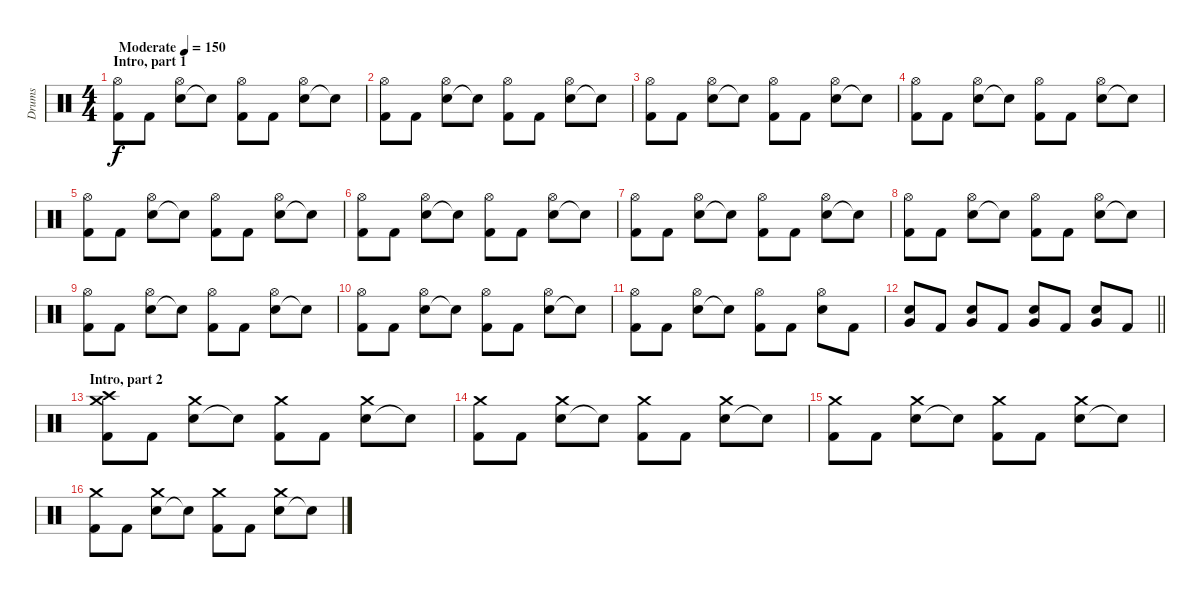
\track ("Drums" "Drums") {instrument percussion}
\staff {score}
\articulation defaults
\ts (4 4)
\section ("" "Intro, part 1")
\tempo (150 "Moderate")
\clef neutral
\ks c
("Kick (hit) 2" "Hi-Hat (open)").8{dy f} "Kick (hit) 2".8 ("Electric Snare (hit)" "Hi-Hat (open)").8 "Snare (hit)"{t}.8 ("Kick (hit) 2" "Hi-Hat (open)").8 "Kick (hit) 2".8 ("Electric Snare (hit)" "Hi-Hat (open)").8 "Snare (hit)"{t}.8 |
("Kick (hit) 2" "Hi-Hat (open)").8 "Kick (hit) 2".8 ("Electric Snare (hit)" "Hi-Hat (open)").8 "Snare (hit)"{t}.8 ("Kick (hit) 2" "Hi-Hat (open)").8 "Kick (hit) 2".8 ("Electric Snare (hit)" "Hi-Hat (open)").8 "Snare (hit)"{t}.8 |
("Kick (hit) 2" "Hi-Hat (open)").8 "Kick (hit) 2".8 ("Electric Snare (hit)" "Hi-Hat (open)").8 "Snare (hit)"{t}.8 ("Kick (hit) 2" "Hi-Hat (open)").8 "Kick (hit) 2".8 ("Electric Snare (hit)" "Hi-Hat (open)").8 "Snare (hit)"{t}.8 |
("Kick (hit) 2" "Hi-Hat (open)").8 "Kick (hit) 2".8 ("Electric Snare (hit)" "Hi-Hat (open)").8 "Snare (hit)"{t}.8 ("Kick (hit) 2" "Hi-Hat (open)").8 "Kick (hit) 2".8 ("Electric Snare (hit)" "Hi-Hat (open)").8 "Snare (hit)"{t}.8 |
("Kick (hit) 2" "Hi-Hat (open)").8 "Kick (hit) 2".8 ("Electric Snare (hit)" "Hi-Hat (open)").8 "Snare (hit)"{t}.8 ("Kick (hit) 2" "Hi-Hat (open)").8 "Kick (hit) 2".8 ("Electric Snare (hit)" "Hi-Hat (open)").8 "Snare (hit)"{t}.8 |
("Kick (hit) 2" "Hi-Hat (open)").8 "Kick (hit) 2".8 ("Electric Snare (hit)" "Hi-Hat (open)").8 "Snare (hit)"{t}.8 ("Kick (hit) 2" "Hi-Hat (open)").8 "Kick (hit) 2".8 ("Electric Snare (hit)" "Hi-Hat (open)").8 "Snare (hit)"{t}.8 |
("Kick (hit) 2" "Hi-Hat (open)").8 "Kick (hit) 2".8 ("Electric Snare (hit)" "Hi-Hat (open)").8 "Snare (hit)"{t}.8 ("Kick (hit) 2" "Hi-Hat (open)").8 "Kick (hit) 2".8 ("Electric Snare (hit)" "Hi-Hat (open)").8 "Snare (hit)"{t}.8 |
("Kick (hit) 2" "Hi-Hat (open)").8 "Kick (hit) 2".8 ("Electric Snare (hit)" "Hi-Hat (open)").8 "Snare (hit)"{t}.8 ("Kick (hit) 2" "Hi-Hat (open)").8 "Kick (hit) 2".8 ("Electric Snare (hit)" "Hi-Hat (open)").8 "Snare (hit)"{t}.8 |
("Kick (hit) 2" "Hi-Hat (open)").8 "Kick (hit) 2".8 ("Electric Snare (hit)" "Hi-Hat (open)").8 "Snare (hit)"{t}.8 ("Kick (hit) 2" "Hi-Hat (open)").8 "Kick (hit) 2".8 ("Electric Snare (hit)" "Hi-Hat (open)").8 "Snare (hit)"{t}.8 |
("Kick (hit) 2" "Hi-Hat (open)").8 "Kick (hit) 2".8 ("Electric Snare (hit)" "Hi-Hat (open)").8 "Snare (hit)"{t}.8 ("Kick (hit) 2" "Hi-Hat (open)").8 "Kick (hit) 2".8 ("Electric Snare (hit)" "Hi-Hat (open)").8 "Snare (hit)"{t}.8 |
("Kick (hit) 2" "Hi-Hat (open)").8 "Kick (hit) 2".8 ("Electric Snare (hit)" "Hi-Hat (open)").8 "Snare (hit)"{t}.8 ("Kick (hit) 2" "Hi-Hat (open)").8 "Kick (hit) 2".8 ("Electric Snare (hit)" "Hi-Hat (open)").8 "Kick (hit) 2".8 |
\barLineRight lightlight
("Electric Snare (hit)" "Very Low Tom (hit)").8 "Kick (hit) 2".8 ("Electric Snare (hit)" "Very Low Tom (hit)").8 "Kick (hit) 2".8 ("Electric Snare (hit)" "Very Low Tom (hit)").8 "Kick (hit) 2".8 ("Electric Snare (hit)" "Very Low Tom (hit)").8 "Kick (hit) 2".8 |
\section ("" "Intro, part 2")
("Kick (hit) 2" "Crash medium (hit)" "Crash high (hit)").8 "Kick (hit) 2".8 ("Electric Snare (hit)" "Crash medium (hit)").8 "Snare (hit)"{t}.8 ("Kick (hit) 2" "Crash medium (hit)").8 "Kick (hit) 2".8 ("Electric Snare (hit)" "Crash medium (hit)").8 "Snare (hit)"{t}.8 |
("Kick (hit) 2" "Crash medium (hit)").8 "Kick (hit) 2".8 ("Electric Snare (hit)" "Crash medium (hit)").8 "Snare (hit)"{t}.8 ("Kick (hit) 2" "Crash medium (hit)").8 "Kick (hit) 2".8 ("Electric Snare (hit)" "Crash medium (hit)").8 "Snare (hit)"{t}.8 |
("Kick (hit) 2" "Crash medium (hit)").8 "Kick (hit) 2".8 ("Electric Snare (hit)" "Crash medium (hit)").8 "Snare (hit)"{t}.8 ("Kick (hit) 2" "Crash medium (hit)").8 "Kick (hit) 2".8 ("Electric Snare (hit)" "Crash medium (hit)").8 "Snare (hit)"{t}.8 |
("Kick (hit) 2" "Crash medium (hit)").8 "Kick (hit) 2".8 ("Electric Snare (hit)" "Crash medium (hit)").8 "Snare (hit)"{t}.8 ("Kick (hit) 2" "Crash medium (hit)").8 "Kick (hit) 2".8 ("Electric Snare (hit)" "Crash medium (hit)").8 "Snare (hit)"{t}.8
